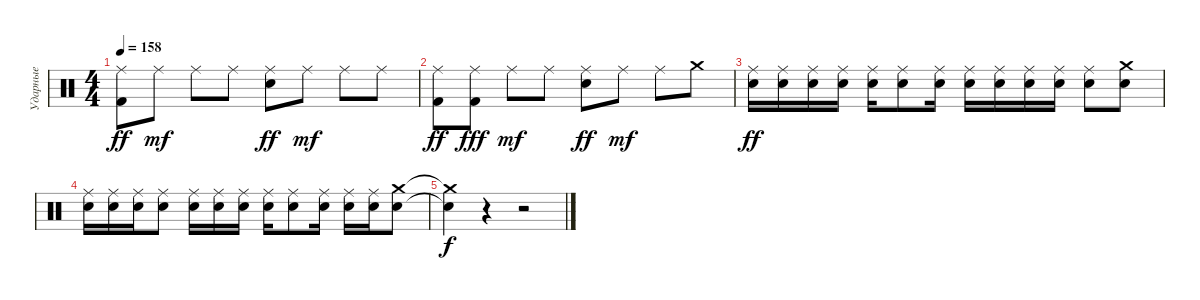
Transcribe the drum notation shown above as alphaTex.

\track ("Ударные" "Ударные") {instrument percussion}
\staff {score}
\articulation defaults
\ts (4 4)
\tempo 158
\clef neutral
\ks c
("Ride (middle)" "Kick (hit) 2").8{dy ff} "Ride (middle)".8{dy mf} "Ride (middle)".8 "Ride (middle)".8 ("Ride (middle)" "Electric Snare (hit)").8{dy ff} "Ride (middle)".8{dy mf} "Ride (middle)".8 "Ride (middle)".8 |
("Ride (middle)" "Kick (hit) 2").8{dy ff} ("Ride (middle)" "Kick (hit) 2").8{dy fff} "Ride (middle)".8{dy mf} "Ride (middle)".8 ("Ride (middle)" "Electric Snare (hit)").8{dy ff} "Ride (middle)".8{dy mf} "Ride (middle)".8 "Crash medium (hit)".8 |
("Ride (middle)" "Electric Snare (hit)").16{dy ff} ("Ride (middle)" "Electric Snare (hit)").16 ("Ride (middle)" "Electric Snare (hit)").16 ("Ride (middle)" "Electric Snare (hit)").16 ("Ride (middle)" "Electric Snare (hit)").16 ("Ride (middle)" "Electric Snare (hit)").8 ("Ride (middle)" "Electric Snare (hit)").16 ("Ride (middle)" "Electric Snare (hit)").16 ("Ride (middle)" "Electric Snare (hit)").16 ("Ride (middle)" "Electric Snare (hit)").16 ("Ride (middle)" "Electric Snare (hit)").16 ("Ride (middle)" "Electric Snare (hit)").8 ("Crash medium (hit)" "Electric Snare (hit)").8 |
("Ride (middle)" "Electric Snare (hit)").16 ("Ride (middle)" "Electric Snare (hit)").16 ("Ride (middle)" "Electric Snare (hit)").16 ("Ride (middle)" "Electric Snare (hit)").8 ("Ride (middle)" "Electric Snare (hit)").16 ("Ride (middle)" "Electric Snare (hit)").16 ("Ride (middle)" "Electric Snare (hit)").16 ("Ride (middle)" "Electric Snare (hit)").16 ("Ride (middle)" "Electric Snare (hit)").8 ("Ride (middle)" "Electric Snare (hit)").16 ("Ride (middle)" "Electric Snare (hit)").16 ("Ride (middle)" "Electric Snare (hit)").16 ("Crash medium (hit)" "Electric Snare (hit)").8 |
("Crash medium (hit)"{t} "Electric Snare (hit)"{t}).4{dy f} r.4 r.2
